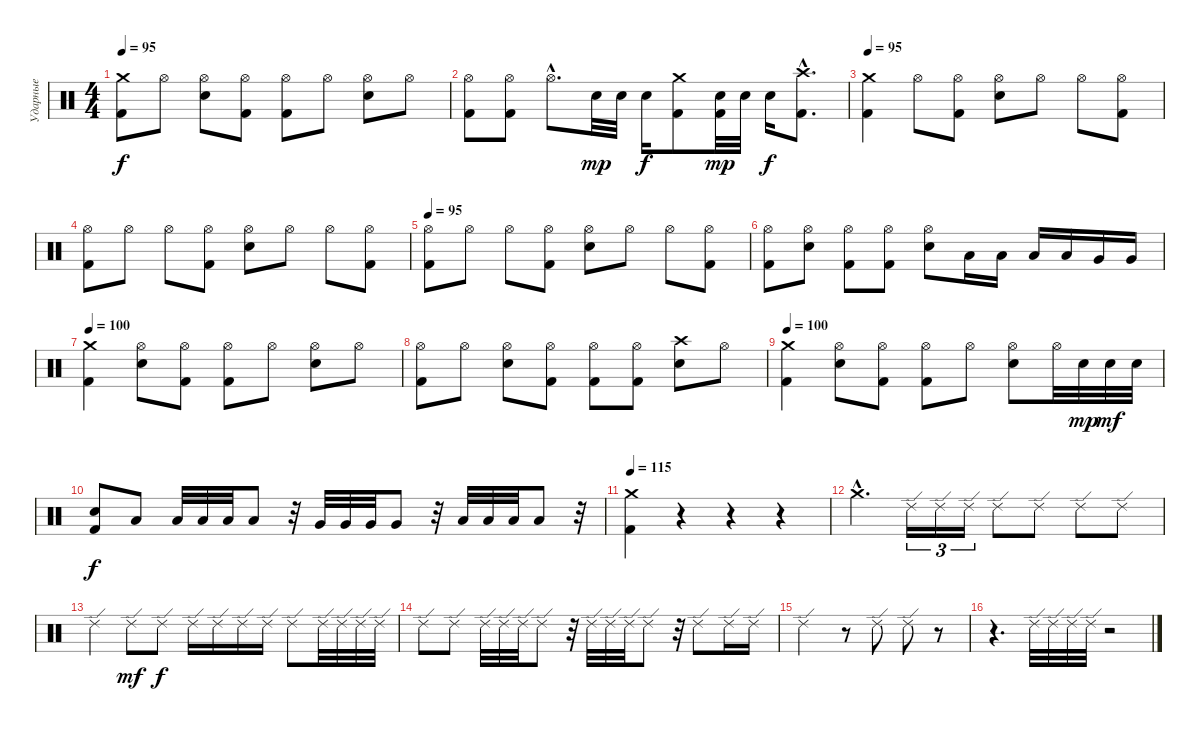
\track ("Ударные" "Ударные") {instrument percussion}
\staff {score}
\articulation defaults
\ts (4 4)
\tempo 95
\clef neutral
\ks c
("Crash medium (hit)" "Kick (hit) 2").8{dy f} "Hi-Hat (open)".8 ("Hi-Hat (open)" "Electric Snare (hit)").8 ("Hi-Hat (open)" "Kick (hit) 2").8 ("Hi-Hat (open)" "Kick (hit) 2").8 "Hi-Hat (open)".8 ("Hi-Hat (open)" "Electric Snare (hit)").8 "Hi-Hat (open)".8 |
("Hi-Hat (open)" "Kick (hit) 2").8 ("Hi-Hat (open)" "Kick (hit) 2").8 "Hi-Hat (open)"{hac}.8{d} "Electric Snare (hit)".32{dy mp} "Electric Snare (hit)".32 "Electric Snare (hit)".16{dy f} ("Crash medium (hit)" "Kick (hit) 2").8 ("Electric Snare (hit)" "Kick (hit) 2").32{dy mp} "Electric Snare (hit)".32 "Electric Snare (hit)".16{dy f} ("Crash high (hit)"{hac} "Kick (hit) 2"{hac}).8{d} |
\tempo 95
("Crash medium (hit)" "Kick (hit) 2").4 "Hi-Hat (open)".8 ("Hi-Hat (open)" "Kick (hit) 2").8 ("Hi-Hat (open)" "Electric Snare (hit)").8 "Hi-Hat (open)".8 "Hi-Hat (open)".8 ("Hi-Hat (open)" "Kick (hit) 2").8 |
("Hi-Hat (open)" "Kick (hit) 2").8 "Hi-Hat (open)".8 "Hi-Hat (open)".8 ("Hi-Hat (open)" "Kick (hit) 2").8 ("Hi-Hat (open)" "Electric Snare (hit)").8 "Hi-Hat (open)".8 "Hi-Hat (open)".8 ("Hi-Hat (open)" "Kick (hit) 2").8 |
\tempo 95
("Hi-Hat (open)" "Kick (hit) 2").8 "Hi-Hat (open)".8 "Hi-Hat (open)".8 ("Hi-Hat (open)" "Kick (hit) 2").8 ("Hi-Hat (open)" "Electric Snare (hit)").8 "Hi-Hat (open)".8 "Hi-Hat (open)".8 ("Hi-Hat (open)" "Kick (hit) 2").8 |
("Hi-Hat (open)" "Kick (hit) 2").8 ("Hi-Hat (open)" "Electric Snare (hit)").8 ("Hi-Hat (open)" "Kick (hit) 2").8 ("Hi-Hat (open)" "Kick (hit) 2").8 ("Hi-Hat (open)" "Electric Snare (hit)").8 "Low Tom (hit)".16 "Low Tom (hit)".16 "Low Tom (hit)".16 "Low Tom (hit)".16 "Very Low Tom (hit)".16 "Very Low Tom (hit)".16 |
\tempo 100
("Crash medium (hit)" "Kick (hit) 2").4 ("Hi-Hat (open)" "Electric Snare (hit)").8 ("Hi-Hat (open)" "Kick (hit) 2").8 ("Hi-Hat (open)" "Kick (hit) 2").8 "Hi-Hat (open)".8 ("Hi-Hat (open)" "Electric Snare (hit)").8 "Hi-Hat (open)".8 |
("Hi-Hat (open)" "Kick (hit) 2").8 "Hi-Hat (open)".8 ("Hi-Hat (open)" "Electric Snare (hit)").8 ("Hi-Hat (open)" "Kick (hit) 2").8 ("Hi-Hat (open)" "Kick (hit) 2").8 ("Hi-Hat (open)" "Kick (hit) 2").8 ("Crash high (hit)" "Electric Snare (hit)").8 "Hi-Hat (open)".8 |
\tempo 100
("Crash medium (hit)" "Kick (hit) 2").4 ("Hi-Hat (open)" "Electric Snare (hit)").8 ("Hi-Hat (open)" "Kick (hit) 2").8 ("Hi-Hat (open)" "Kick (hit) 2").8 "Hi-Hat (open)".8 ("Hi-Hat (open)" "Electric Snare (hit)").8 "Hi-Hat (open)".32 "Electric Snare (hit)".32{dy mp} "Electric Snare (hit)".32{dy mf} "Electric Snare (hit)".32 |
("Electric Snare (hit)" "Kick (hit) 2").8{dy f} "Low Tom (hit)".8 "Low Tom (hit)".32 "Low Tom (hit)".32 "Low Tom (hit)".32 "Low Tom (hit)".8 r.32 "Very Low Tom (hit)".32 "Very Low Tom (hit)".32 "Very Low Tom (hit)".32 "Very Low Tom (hit)".8 r.32 "Low Floor Tom (hit)".32 "Low Floor Tom (hit)".32 "Low Floor Tom (hit)".32 "Low Floor Tom (hit)".8 r.32 |
\tempo 115
("Crash medium (hit)" "Kick (hit) 2").4 r.4 r.4 r.4 |
"Crash medium (hit)"{hac}.4{d} "Ride (edge) 2".16{tu (3 2)} "Ride (edge) 2".16{tu (3 2)} "Ride (edge) 2".16{tu (3 2)} "Ride (edge) 2".8 "Ride (edge) 2".8 "Ride (edge) 2".8 "Ride (edge) 2".8 |
"Ride (edge) 2".4 "Ride (edge) 2".8{dy mf} "Ride (edge) 2".8{dy f} "Ride (edge) 2".16 "Ride (edge) 2".16 "Ride (edge) 2".16 "Ride (edge) 2".16 "Ride (edge) 2".8 "Ride (edge) 2".32 "Ride (edge) 2".32 "Ride (edge) 2".32 "Ride (edge) 2".32 |
"Ride (edge) 2".8 "Ride (edge) 2".8 "Ride (edge) 2".32 "Ride (edge) 2".32 "Ride (edge) 2".32 "Ride (edge) 2".8 r.32 "Ride (edge) 2".32 "Ride (edge) 2".32 "Ride (edge) 2".32 "Ride (edge) 2".8 r.32 "Ride (edge) 2".8 "Ride (edge) 2".16 "Ride (edge) 2".16 |
"Ride (edge) 2".2 r.8 "Ride (edge) 2".8 "Ride (edge) 2".8 r.8 |
r.4{d} "Ride (edge) 2".32 "Ride (edge) 2".32 "Ride (edge) 2".32 "Ride (edge) 2".32 r.2
